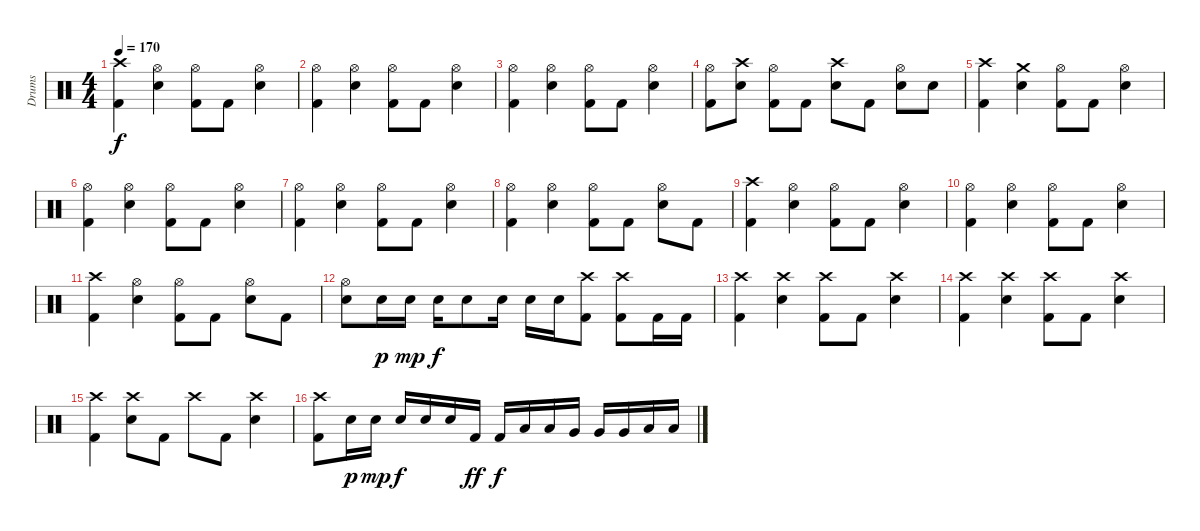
\track ("Drums" "Drums") {instrument percussion}
\staff {score}
\articulation defaults
\ts (4 4)
\tempo 170
\clef neutral
\ks c
("Crash high (hit)" "Kick (hit) 2").4{dy f} ("Hi-Hat (open)" "Snare (hit) 2").4 ("Hi-Hat (open)" "Kick (hit) 2").8 "Kick (hit) 2".8 ("Hi-Hat (open)" "Snare (hit) 2").4 |
("Hi-Hat (open)" "Kick (hit) 2").4 ("Hi-Hat (open)" "Snare (hit) 2").4 ("Hi-Hat (open)" "Kick (hit) 2").8 "Kick (hit) 2".8 ("Hi-Hat (open)" "Snare (hit) 2").4 |
("Hi-Hat (open)" "Kick (hit) 2").4 ("Hi-Hat (open)" "Snare (hit) 2").4 ("Hi-Hat (open)" "Kick (hit) 2").8 "Kick (hit) 2".8 ("Hi-Hat (open)" "Snare (hit) 2").4 |
("Hi-Hat (open)" "Kick (hit) 2").8 ("Crash high (hit)" "Snare (hit) 2").8 ("Hi-Hat (open)" "Kick (hit) 2").8 "Kick (hit) 2".8 ("Crash high (hit)" "Snare (hit) 2").8 "Kick (hit) 2".8 ("Hi-Hat (open)" "Snare (hit) 2").8 "Snare (hit) 2".8 |
("Crash high (hit)" "Kick (hit) 2").4 ("Crash medium (hit)" "Snare (hit) 2").4 ("Hi-Hat (open)" "Kick (hit) 2").8 "Kick (hit) 2".8 ("Hi-Hat (open)" "Snare (hit) 2").4 |
("Hi-Hat (open)" "Kick (hit) 2").4 ("Hi-Hat (open)" "Snare (hit) 2").4 ("Hi-Hat (open)" "Kick (hit) 2").8 "Kick (hit) 2".8 ("Hi-Hat (open)" "Snare (hit) 2").4 |
("Hi-Hat (open)" "Kick (hit) 2").4 ("Hi-Hat (open)" "Snare (hit) 2").4 ("Hi-Hat (open)" "Kick (hit) 2").8 "Kick (hit) 2".8 ("Hi-Hat (open)" "Snare (hit) 2").4 |
("Hi-Hat (open)" "Kick (hit) 2").4 ("Hi-Hat (open)" "Snare (hit) 2").4 ("Hi-Hat (open)" "Kick (hit) 2").8 "Kick (hit) 2".8 ("Hi-Hat (open)" "Snare (hit) 2").8 "Kick (hit) 2".8 |
("Crash high (hit)" "Kick (hit) 2").4 ("Hi-Hat (open)" "Snare (hit) 2").4 ("Hi-Hat (open)" "Kick (hit) 2").8 "Kick (hit) 2".8 ("Hi-Hat (open)" "Snare (hit) 2").4 |
("Hi-Hat (open)" "Kick (hit) 2").4 ("Hi-Hat (open)" "Snare (hit) 2").4 ("Hi-Hat (open)" "Kick (hit) 2").8 "Kick (hit) 2".8 ("Hi-Hat (open)" "Snare (hit) 2").4 |
("Crash high (hit)" "Kick (hit) 2").4 ("Hi-Hat (open)" "Snare (hit) 2").4 ("Hi-Hat (open)" "Kick (hit) 2").8 "Kick (hit) 2".8 ("Hi-Hat (open)" "Snare (hit) 2").8 "Kick (hit) 2".8 |
("Hi-Hat (open)" "Snare (hit) 2").8 "Snare (hit) 2".16{dy p} "Snare (hit) 2".16{dy mp} "Snare (hit) 2".16{dy f} "Snare (hit) 2".8 "Snare (hit) 2".16 "Snare (hit) 2".16 "Snare (hit) 2".16 ("Crash high (hit)" "Kick (hit) 2").8 ("Crash high (hit)" "Kick (hit) 2").8 "Kick (hit) 2".16 "Kick (hit) 2".16 |
("Crash high (hit)" "Kick (hit) 2").4 ("Crash high (hit)" "Snare (hit) 2").4 ("Crash high (hit)" "Kick (hit) 2").8 "Kick (hit) 2".8 ("Crash high (hit)" "Snare (hit) 2").4 |
("Crash high (hit)" "Kick (hit) 2").4 ("Crash high (hit)" "Snare (hit) 2").4 ("Crash high (hit)" "Kick (hit) 2").8 "Kick (hit) 2".8 ("Crash high (hit)" "Snare (hit) 2").4 |
("Crash high (hit)" "Kick (hit) 2").4 ("Crash high (hit)" "Snare (hit) 2").8 "Kick (hit) 2".8 "Crash high (hit)".8 "Kick (hit) 2".8 ("Crash high (hit)" "Snare (hit) 2").4 |
("Crash high (hit)" "Kick (hit) 2").8 "Snare (hit) 2".16{dy p} "Snare (hit) 2".16{dy mp} "Snare (hit) 2".16{dy f} "Snare (hit) 2".16 "Snare (hit) 2".16 "Kick (hit) 2".16{dy ff} "Kick (hit) 2".16{dy f} "Low Tom (hit)".16 "Low Tom (hit)".16 "Very Low Tom (hit)".16 "Very Low Tom (hit)".16 "Very Low Tom (hit)".16 "Low Floor Tom (hit)".16 "Low Floor Tom (hit)".16
